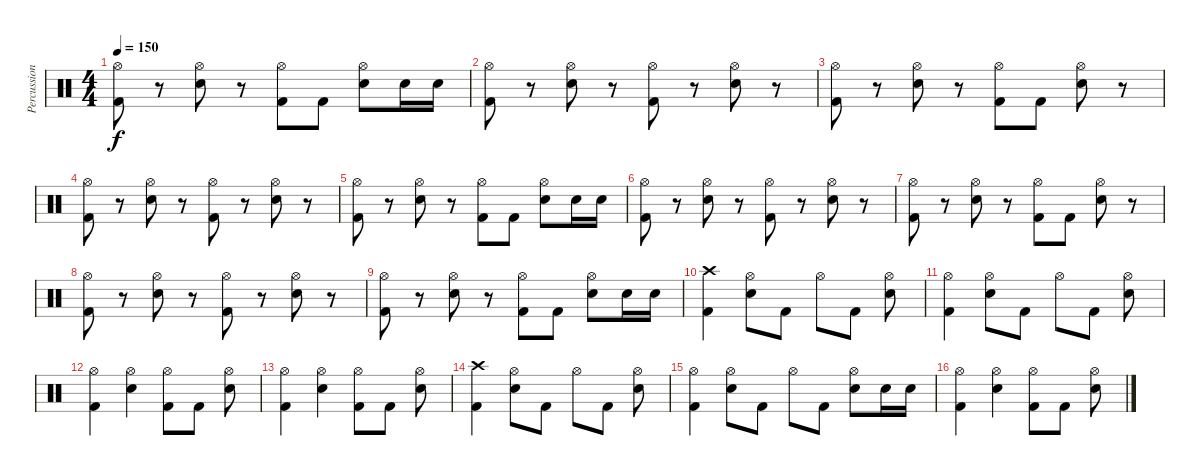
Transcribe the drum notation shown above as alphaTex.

\track ("Percussion" "Percussion") {instrument percussion}
\staff {score}
\articulation defaults
\ts (4 4)
\tempo 150
\clef neutral
\ks c
("Hi-Hat (open)" "Kick (hit) 2").8{dy f} r.8 ("Hi-Hat (open)" "Electric Snare (hit)").8 r.8 ("Hi-Hat (open)" "Kick (hit) 2").8 "Kick (hit) 2".8 ("Hi-Hat (open)" "Electric Snare (hit)").8 "Electric Snare (hit)".16 "Electric Snare (hit)".16 |
("Hi-Hat (open)" "Kick (hit) 2").8 r.8 ("Hi-Hat (open)" "Electric Snare (hit)").8 r.8 ("Hi-Hat (open)" "Kick (hit) 2").8 r.8 ("Hi-Hat (open)" "Electric Snare (hit)").8 r.8 |
("Hi-Hat (open)" "Kick (hit) 2").8 r.8 ("Hi-Hat (open)" "Electric Snare (hit)").8 r.8 ("Hi-Hat (open)" "Kick (hit) 2").8 "Kick (hit) 2".8 ("Hi-Hat (open)" "Electric Snare (hit)").8 r.8 |
("Hi-Hat (open)" "Kick (hit) 2").8 r.8 ("Hi-Hat (open)" "Electric Snare (hit)").8 r.8 ("Hi-Hat (open)" "Kick (hit) 2").8 r.8 ("Hi-Hat (open)" "Electric Snare (hit)").8 r.8 |
("Hi-Hat (open)" "Kick (hit) 2").8 r.8 ("Hi-Hat (open)" "Electric Snare (hit)").8 r.8 ("Hi-Hat (open)" "Kick (hit) 2").8 "Kick (hit) 2".8 ("Hi-Hat (open)" "Electric Snare (hit)").8 "Electric Snare (hit)".16 "Electric Snare (hit)".16 |
("Hi-Hat (open)" "Kick (hit) 2").8 r.8 ("Hi-Hat (open)" "Electric Snare (hit)").8 r.8 ("Hi-Hat (open)" "Kick (hit) 2").8 r.8 ("Hi-Hat (open)" "Electric Snare (hit)").8 r.8 |
("Hi-Hat (open)" "Kick (hit) 2").8 r.8 ("Hi-Hat (open)" "Electric Snare (hit)").8 r.8 ("Hi-Hat (open)" "Kick (hit) 2").8 "Kick (hit) 2".8 ("Hi-Hat (open)" "Electric Snare (hit)").8 r.8 |
("Hi-Hat (open)" "Kick (hit) 2").8 r.8 ("Hi-Hat (open)" "Electric Snare (hit)").8 r.8 ("Hi-Hat (open)" "Kick (hit) 2").8 r.8 ("Hi-Hat (open)" "Electric Snare (hit)").8 r.8 |
("Hi-Hat (open)" "Kick (hit) 2").8 r.8 ("Hi-Hat (open)" "Electric Snare (hit)").8 r.8 ("Hi-Hat (open)" "Kick (hit) 2").8 "Kick (hit) 2".8 ("Hi-Hat (open)" "Electric Snare (hit)").8 "Electric Snare (hit)".16 "Electric Snare (hit)".16 |
("Crash high (hit)" "Kick (hit) 2").4 ("Hi-Hat (open)" "Electric Snare (hit)").8 "Kick (hit) 2".8 "Hi-Hat (open)".8 "Kick (hit) 2".8 ("Hi-Hat (open)" "Electric Snare (hit)").8 |
("Hi-Hat (open)" "Kick (hit) 2").4 ("Hi-Hat (open)" "Electric Snare (hit)").8 "Kick (hit) 2".8 "Hi-Hat (open)".8 "Kick (hit) 2".8 ("Hi-Hat (open)" "Electric Snare (hit)").8 |
("Hi-Hat (open)" "Kick (hit) 2").4 ("Hi-Hat (open)" "Electric Snare (hit)").4 ("Hi-Hat (open)" "Kick (hit) 2").8 "Kick (hit) 2".8 ("Hi-Hat (open)" "Electric Snare (hit)").8 |
("Hi-Hat (open)" "Kick (hit) 2").4 ("Hi-Hat (open)" "Electric Snare (hit)").4 ("Hi-Hat (open)" "Kick (hit) 2").8 "Kick (hit) 2".8 ("Hi-Hat (open)" "Electric Snare (hit)").8 |
("Crash high (hit)" "Kick (hit) 2").4 ("Hi-Hat (open)" "Electric Snare (hit)").8 "Kick (hit) 2".8 "Hi-Hat (open)".8 "Kick (hit) 2".8 ("Hi-Hat (open)" "Electric Snare (hit)").8 |
("Hi-Hat (open)" "Kick (hit) 2").4 ("Hi-Hat (open)" "Electric Snare (hit)").8 "Kick (hit) 2".8 "Hi-Hat (open)".8 "Kick (hit) 2".8 ("Hi-Hat (open)" "Electric Snare (hit)").8 "Electric Snare (hit)".16 "Electric Snare (hit)".16 |
("Hi-Hat (open)" "Kick (hit) 2").4 ("Hi-Hat (open)" "Electric Snare (hit)").4 ("Hi-Hat (open)" "Kick (hit) 2").8 "Kick (hit) 2".8 ("Hi-Hat (open)" "Electric Snare (hit)").8
